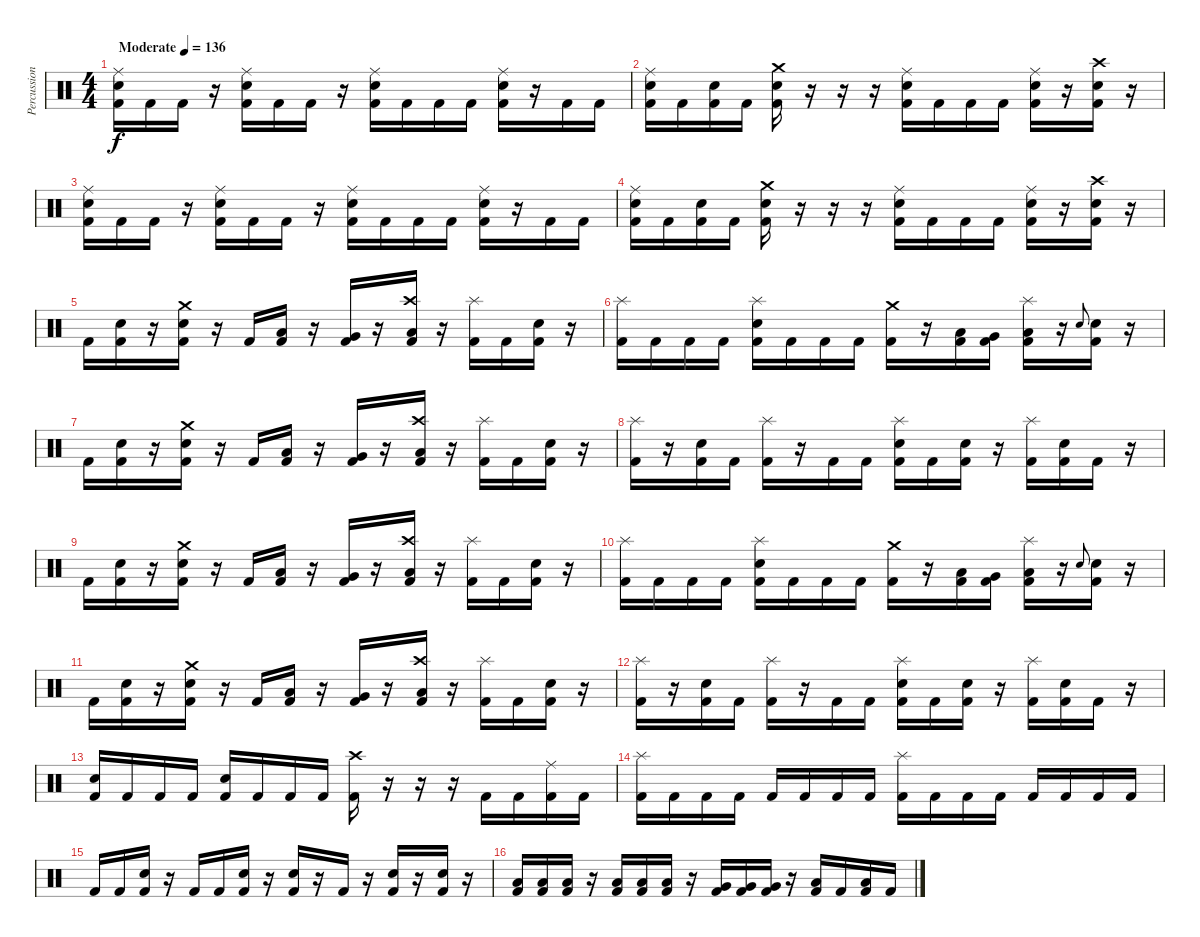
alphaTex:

\track ("Percussion" "Percussion") {instrument percussion}
\staff {score}
\articulation defaults
\ts (4 4)
\tempo (136 "Moderate")
\clef neutral
\ks c
("Ride (middle)" "Electric Snare (hit)" "Kick (hit) 2").16{dy f} "Kick (hit) 2".16 "Kick (hit) 2".16 r.16 ("Ride (middle)" "Electric Snare (hit)" "Kick (hit) 2").16 "Kick (hit) 2".16 "Kick (hit) 2".16 r.16 ("Ride (middle)" "Electric Snare (hit)" "Kick (hit) 2").16 "Kick (hit) 2".16 "Kick (hit) 2".16 "Kick (hit) 2".16 ("Ride (middle)" "Electric Snare (hit)" "Kick (hit) 2").16 r.16 "Kick (hit) 2".16 "Kick (hit) 2".16 |
("Ride (middle)" "Electric Snare (hit)" "Kick (hit) 2").16 "Kick (hit) 2".16 ("Electric Snare (hit)" "Kick (hit) 2").16 "Kick (hit) 2".16 ("Crash medium (hit)" "Electric Snare (hit)" "Kick (hit) 2").16 r.16 r.16 r.16 ("Ride (middle)" "Electric Snare (hit)" "Kick (hit) 2").16 "Kick (hit) 2".16 "Kick (hit) 2".16 "Kick (hit) 2".16 ("Ride (middle)" "Electric Snare (hit)" "Kick (hit) 2").16 r.16 ("Crash high (hit)" "Electric Snare (hit)" "Kick (hit) 2").16 r.16 |
("Ride (middle)" "Electric Snare (hit)" "Kick (hit) 2").16 "Kick (hit) 2".16 "Kick (hit) 2".16 r.16 ("Ride (middle)" "Electric Snare (hit)" "Kick (hit) 2").16 "Kick (hit) 2".16 "Kick (hit) 2".16 r.16 ("Ride (middle)" "Electric Snare (hit)" "Kick (hit) 2").16 "Kick (hit) 2".16 "Kick (hit) 2".16 "Kick (hit) 2".16 ("Ride (middle)" "Electric Snare (hit)" "Kick (hit) 2").16 r.16 "Kick (hit) 2".16 "Kick (hit) 2".16 |
("Ride (middle)" "Electric Snare (hit)" "Kick (hit) 2").16 "Kick (hit) 2".16 ("Electric Snare (hit)" "Kick (hit) 2").16 "Kick (hit) 2".16 ("Crash medium (hit)" "Electric Snare (hit)" "Kick (hit) 2").16 r.16 r.16 r.16 ("Ride (middle)" "Electric Snare (hit)" "Kick (hit) 2").16 "Kick (hit) 2".16 "Kick (hit) 2".16 "Kick (hit) 2".16 ("Ride (middle)" "Electric Snare (hit)" "Kick (hit) 2").16 r.16 ("Crash high (hit)" "Electric Snare (hit)" "Kick (hit) 2").16 r.16 |
"Kick (hit) 2".16 ("Electric Snare (hit)" "Kick (hit) 2").16 r.16 ("Crash medium (hit)" "Electric Snare (hit)" "Kick (hit) 2").16 r.16 "Kick (hit) 2".16 ("Low Tom (hit)" "Kick (hit) 2").16 r.16 ("Very Low Tom (hit)" "Kick (hit) 2").16 r.16 ("Crash high (hit)" "Low Floor Tom (hit)" "Kick (hit) 2").16 r.16 ("Splash (hit)" "Kick (hit) 2").16 "Kick (hit) 2".16 ("Electric Snare (hit)" "Kick (hit) 2").16 r.16 |
("Splash (hit)" "Kick (hit) 2").16 "Kick (hit) 2".16 "Kick (hit) 2".16 "Kick (hit) 2".16 ("Splash (hit)" "Electric Snare (hit)" "Kick (hit) 2").16 "Kick (hit) 2".16 "Kick (hit) 2".16 "Kick (hit) 2".16 ("Crash medium (hit)" "Kick (hit) 2").16 r.16 ("Low Tom (hit)" "Kick (hit) 2").16 ("Very Low Tom (hit)" "Kick (hit) 2").16 ("Splash (hit)" "Low Floor Tom (hit)" "Kick (hit) 2").16 r.16 "Electric Snare (hit)".8{gr onbeat} ("Electric Snare (hit)" "Kick (hit) 2").16 r.16 |
"Kick (hit) 2".16 ("Electric Snare (hit)" "Kick (hit) 2").16 r.16 ("Crash medium (hit)" "Electric Snare (hit)" "Kick (hit) 2").16 r.16 "Kick (hit) 2".16 ("Low Tom (hit)" "Kick (hit) 2").16 r.16 ("Very Low Tom (hit)" "Kick (hit) 2").16 r.16 ("Crash high (hit)" "Low Floor Tom (hit)" "Kick (hit) 2").16 r.16 ("Splash (hit)" "Kick (hit) 2").16 "Kick (hit) 2".16 ("Electric Snare (hit)" "Kick (hit) 2").16 r.16 |
("Splash (hit)" "Kick (hit) 2").16 r.16 ("Electric Snare (hit)" "Kick (hit) 2").16 "Kick (hit) 2".16 ("Splash (hit)" "Kick (hit) 2").16 r.16 "Kick (hit) 2".16 "Kick (hit) 2".16 ("Splash (hit)" "Electric Snare (hit)" "Kick (hit) 2").16 "Kick (hit) 2".16 ("Electric Snare (hit)" "Kick (hit) 2").16 r.16 ("Splash (hit)" "Kick (hit) 2").16 ("Electric Snare (hit)" "Kick (hit) 2").16 "Kick (hit) 2".16 r.16 |
"Kick (hit) 2".16 ("Electric Snare (hit)" "Kick (hit) 2").16 r.16 ("Crash medium (hit)" "Electric Snare (hit)" "Kick (hit) 2").16 r.16 "Kick (hit) 2".16 ("Low Tom (hit)" "Kick (hit) 2").16 r.16 ("Very Low Tom (hit)" "Kick (hit) 2").16 r.16 ("Crash high (hit)" "Low Floor Tom (hit)" "Kick (hit) 2").16 r.16 ("Splash (hit)" "Kick (hit) 2").16 "Kick (hit) 2".16 ("Electric Snare (hit)" "Kick (hit) 2").16 r.16 |
("Splash (hit)" "Kick (hit) 2").16 "Kick (hit) 2".16 "Kick (hit) 2".16 "Kick (hit) 2".16 ("Splash (hit)" "Electric Snare (hit)" "Kick (hit) 2").16 "Kick (hit) 2".16 "Kick (hit) 2".16 "Kick (hit) 2".16 ("Crash medium (hit)" "Kick (hit) 2").16 r.16 ("Low Tom (hit)" "Kick (hit) 2").16 ("Very Low Tom (hit)" "Kick (hit) 2").16 ("Splash (hit)" "Low Floor Tom (hit)" "Kick (hit) 2").16 r.16 "Electric Snare (hit)".8{gr onbeat} ("Electric Snare (hit)" "Kick (hit) 2").16 r.16 |
"Kick (hit) 2".16 ("Electric Snare (hit)" "Kick (hit) 2").16 r.16 ("Crash medium (hit)" "Electric Snare (hit)" "Kick (hit) 2").16 r.16 "Kick (hit) 2".16 ("Low Tom (hit)" "Kick (hit) 2").16 r.16 ("Very Low Tom (hit)" "Kick (hit) 2").16 r.16 ("Crash high (hit)" "Low Floor Tom (hit)" "Kick (hit) 2").16 r.16 ("Splash (hit)" "Kick (hit) 2").16 "Kick (hit) 2".16 ("Electric Snare (hit)" "Kick (hit) 2").16 r.16 |
("Splash (hit)" "Kick (hit) 2").16 r.16 ("Electric Snare (hit)" "Kick (hit) 2").16 "Kick (hit) 2".16 ("Splash (hit)" "Kick (hit) 2").16 r.16 "Kick (hit) 2".16 "Kick (hit) 2".16 ("Splash (hit)" "Electric Snare (hit)" "Kick (hit) 2").16 "Kick (hit) 2".16 ("Electric Snare (hit)" "Kick (hit) 2").16 r.16 ("Splash (hit)" "Kick (hit) 2").16 ("Electric Snare (hit)" "Kick (hit) 2").16 "Kick (hit) 2".16 r.16 |
("Electric Snare (hit)" "Kick (hit) 2").16 "Kick (hit) 2".16 "Kick (hit) 2".16 "Kick (hit) 2".16 ("Electric Snare (hit)" "Kick (hit) 2").16 "Kick (hit) 2".16 "Kick (hit) 2".16 "Kick (hit) 2".16 ("Crash high (hit)" "Kick (hit) 2").16 r.16 r.16 r.16 "Kick (hit) 2".16 "Kick (hit) 2".16 ("Ride (middle)" "Kick (hit) 2").16 "Kick (hit) 2".16 |
("Splash (hit)" "Kick (hit) 2").16 "Kick (hit) 2".16 "Kick (hit) 2".16 "Kick (hit) 2".16 "Kick (hit) 2".16 "Kick (hit) 2".16 "Kick (hit) 2".16 "Kick (hit) 2".16 ("Splash (hit)" "Kick (hit) 2").16 "Kick (hit) 2".16 "Kick (hit) 2".16 "Kick (hit) 2".16 "Kick (hit) 2".16 "Kick (hit) 2".16 "Kick (hit) 2".16 "Kick (hit) 2".16 |
"Kick (hit) 2".16 "Kick (hit) 2".16 ("Electric Snare (hit)" "Kick (hit) 2").16 r.16 "Kick (hit) 2".16 "Kick (hit) 2".16 ("Electric Snare (hit)" "Kick (hit) 2").16 r.16 ("Electric Snare (hit)" "Kick (hit) 2").16 r.16 "Kick (hit) 2".16 r.16 ("Electric Snare (hit)" "Kick (hit) 2").16 r.16 ("Electric Snare (hit)" "Kick (hit) 2").16 r.16 |
("Low Floor Tom (hit)" "Kick (hit) 2").16 ("Low Floor Tom (hit)" "Kick (hit) 2").16 ("Low Floor Tom (hit)" "Kick (hit) 2").16 r.16 ("Low Tom (hit)" "Kick (hit) 2").16 ("Low Tom (hit)" "Kick (hit) 2").16 ("Low Tom (hit)" "Kick (hit) 2").16 r.16 ("Very Low Tom (hit)" "Kick (hit) 2").16 ("Very Low Tom (hit)" "Kick (hit) 2").16 ("Very Low Tom (hit)" "Kick (hit) 2").16 r.16 ("Low Tom (hit)" "Kick (hit) 2").16 "Kick (hit) 2".16 ("Low Floor Tom (hit)" "Kick (hit) 2").16 "Kick (hit) 2".16
